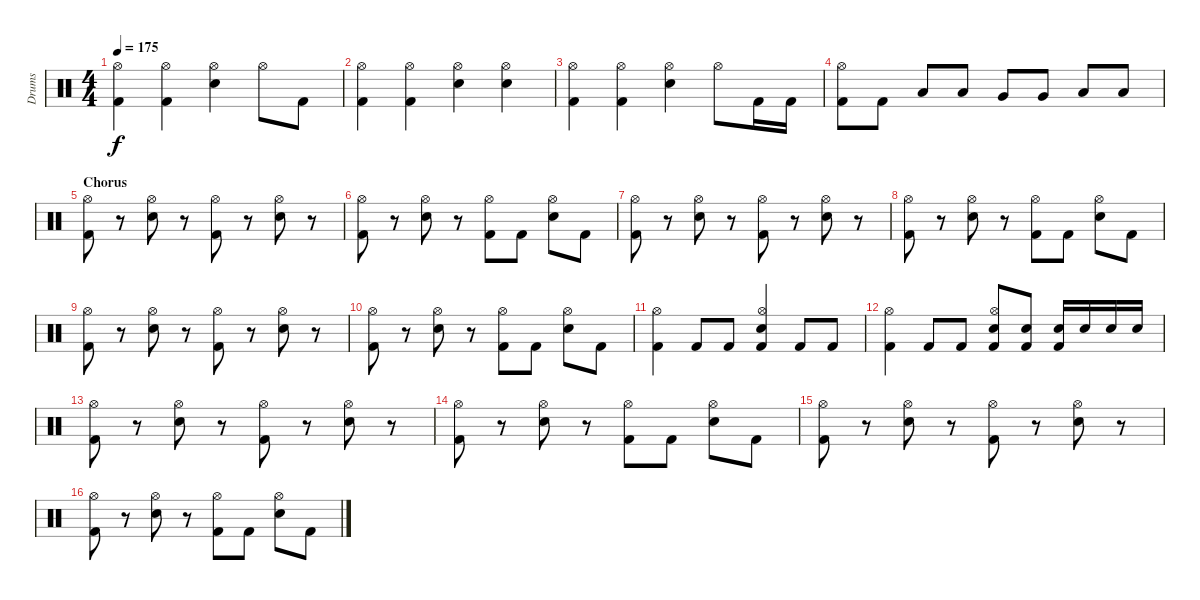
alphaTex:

\track ("Drums" "Drums") {instrument percussion}
\staff {score}
\articulation defaults
\ts (4 4)
\tempo 175
\clef neutral
\ks c
("Kick (hit) 2" "Hi-Hat (open)").4{dy f} ("Kick (hit) 2" "Hi-Hat (open)").4 ("Electric Snare (hit)" "Hi-Hat (open)").4 "Hi-Hat (open)".8 "Kick (hit) 2".8 |
("Kick (hit) 2" "Hi-Hat (open)").4 ("Kick (hit) 2" "Hi-Hat (open)").4 ("Electric Snare (hit)" "Hi-Hat (open)").4 ("Electric Snare (hit)" "Hi-Hat (open)").4 |
("Kick (hit) 2" "Hi-Hat (open)").4 ("Kick (hit) 2" "Hi-Hat (open)").4 ("Electric Snare (hit)" "Hi-Hat (open)").4 "Hi-Hat (open)".8 "Kick (hit) 2".16 "Kick (hit) 2".16 |
("Kick (hit) 2" "Hi-Hat (open)").8 "Kick (hit) 2".8 "Low Tom (hit)".8 "Low Tom (hit)".8 "Very Low Tom (hit)".8 "Very Low Tom (hit)".8 "Low Floor Tom (hit)".8 "Low Floor Tom (hit)".8 |
\section ("" "Chorus")
("Kick (hit) 2" "Hi-Hat (open)").8 r.8 ("Electric Snare (hit)" "Hi-Hat (open)").8 r.8 ("Kick (hit) 2" "Hi-Hat (open)").8 r.8 ("Electric Snare (hit)" "Hi-Hat (open)").8 r.8 |
("Kick (hit) 2" "Hi-Hat (open)").8 r.8 ("Electric Snare (hit)" "Hi-Hat (open)").8 r.8 ("Kick (hit) 2" "Hi-Hat (open)").8 "Kick (hit) 2".8 ("Electric Snare (hit)" "Hi-Hat (open)").8 "Kick (hit) 2".8 |
("Kick (hit) 2" "Hi-Hat (open)").8 r.8 ("Electric Snare (hit)" "Hi-Hat (open)").8 r.8 ("Kick (hit) 2" "Hi-Hat (open)").8 r.8 ("Electric Snare (hit)" "Hi-Hat (open)").8 r.8 |
("Kick (hit) 2" "Hi-Hat (open)").8 r.8 ("Electric Snare (hit)" "Hi-Hat (open)").8 r.8 ("Kick (hit) 2" "Hi-Hat (open)").8 "Kick (hit) 2".8 ("Electric Snare (hit)" "Hi-Hat (open)").8 "Kick (hit) 2".8 |
("Kick (hit) 2" "Hi-Hat (open)").8 r.8 ("Electric Snare (hit)" "Hi-Hat (open)").8 r.8 ("Kick (hit) 2" "Hi-Hat (open)").8 r.8 ("Electric Snare (hit)" "Hi-Hat (open)").8 r.8 |
("Kick (hit) 2" "Hi-Hat (open)").8 r.8 ("Electric Snare (hit)" "Hi-Hat (open)").8 r.8 ("Kick (hit) 2" "Hi-Hat (open)").8 "Kick (hit) 2".8 ("Electric Snare (hit)" "Hi-Hat (open)").8 "Kick (hit) 2".8 |
("Kick (hit) 2" "Hi-Hat (open)").4 "Kick (hit) 2".8 "Kick (hit) 2".8 ("Kick (hit) 2" "Electric Snare (hit)" "Hi-Hat (open)").4 "Kick (hit) 2".8 "Kick (hit) 2".8 |
("Kick (hit) 2" "Hi-Hat (open)").4 "Kick (hit) 2".8 "Kick (hit) 2".8 ("Kick (hit) 2" "Electric Snare (hit)" "Hi-Hat (open)").8 ("Kick (hit) 2" "Electric Snare (hit)").8 ("Kick (hit) 2" "Electric Snare (hit)").16 "Electric Snare (hit)".16 "Electric Snare (hit)".16 "Electric Snare (hit)".16 |
("Kick (hit) 2" "Hi-Hat (open)").8 r.8 ("Electric Snare (hit)" "Hi-Hat (open)").8 r.8 ("Kick (hit) 2" "Hi-Hat (open)").8 r.8 ("Electric Snare (hit)" "Hi-Hat (open)").8 r.8 |
("Kick (hit) 2" "Hi-Hat (open)").8 r.8 ("Electric Snare (hit)" "Hi-Hat (open)").8 r.8 ("Kick (hit) 2" "Hi-Hat (open)").8 "Kick (hit) 2".8 ("Electric Snare (hit)" "Hi-Hat (open)").8 "Kick (hit) 2".8 |
("Kick (hit) 2" "Hi-Hat (open)").8 r.8 ("Electric Snare (hit)" "Hi-Hat (open)").8 r.8 ("Kick (hit) 2" "Hi-Hat (open)").8 r.8 ("Electric Snare (hit)" "Hi-Hat (open)").8 r.8 |
("Kick (hit) 2" "Hi-Hat (open)").8 r.8 ("Electric Snare (hit)" "Hi-Hat (open)").8 r.8 ("Kick (hit) 2" "Hi-Hat (open)").8 "Kick (hit) 2".8 ("Electric Snare (hit)" "Hi-Hat (open)").8 "Kick (hit) 2".8
